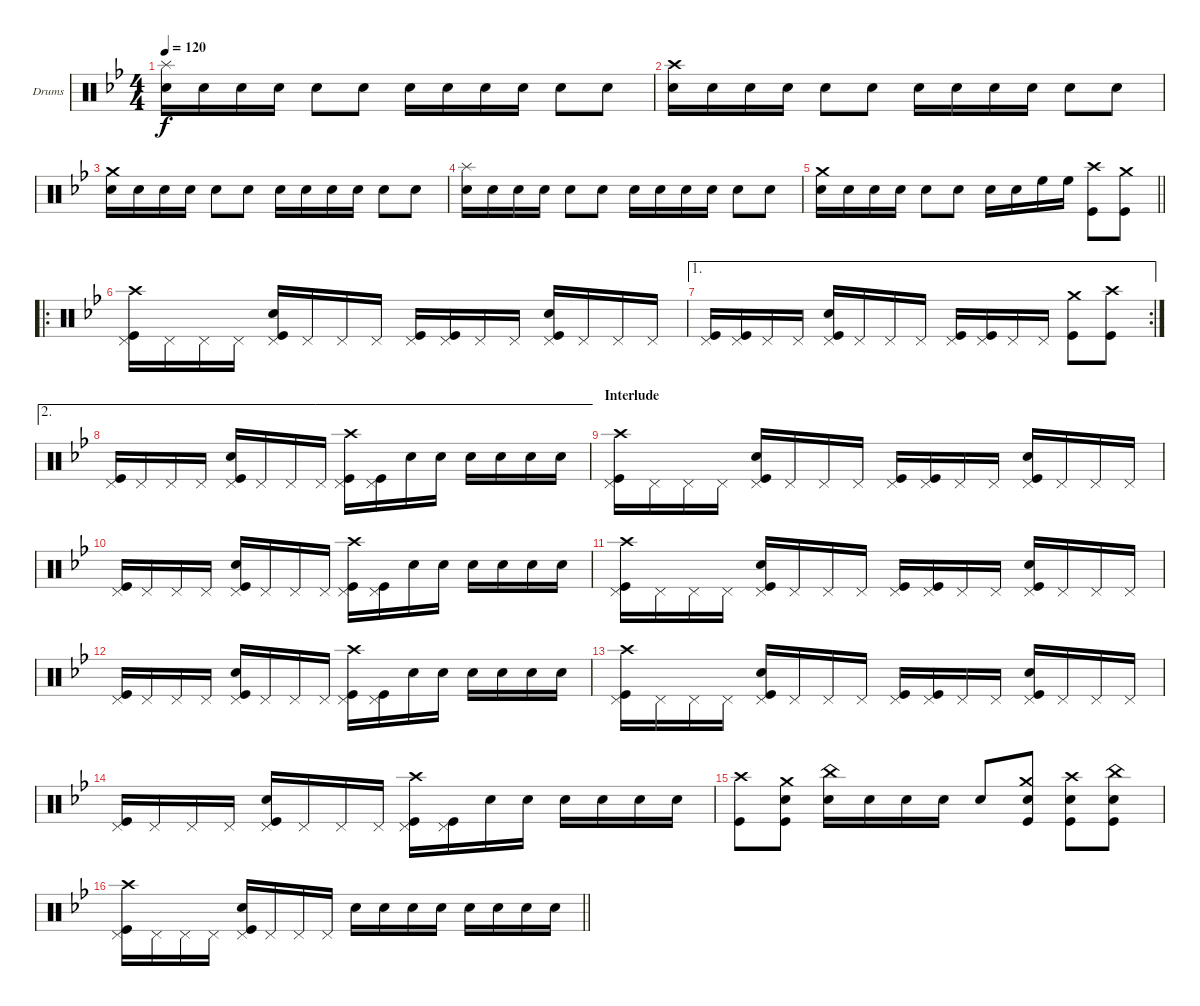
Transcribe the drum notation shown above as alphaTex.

\bracketExtendMode groupsimilarinstruments
\firstSystemTrackNameOrientation horizontal
\otherSystemsTrackNameOrientation horizontal
\track ("Drumkit" "Drums") {instrument percussion}
\staff {score}
\articulation defaults
\ts (4 4)
\tempo 120
\clef neutral
\ks bb
("Splash (hit)" "Snare (hit) 2").16{dy f} "Snare (hit) 2".16 "Snare (hit) 2".16 "Snare (hit) 2".16 "Snare (hit) 2".8 "Snare (hit) 2".8 "Snare (hit) 2".16 "Snare (hit) 2".16 "Snare (hit) 2".16 "Snare (hit) 2".16 "Snare (hit) 2".8 "Snare (hit) 2".8 |
("Crash high (hit)" "Snare (hit) 2").16 "Snare (hit) 2".16 "Snare (hit) 2".16 "Snare (hit) 2".16 "Snare (hit) 2".8 "Snare (hit) 2".8 "Snare (hit) 2".16 "Snare (hit) 2".16 "Snare (hit) 2".16 "Snare (hit) 2".16 "Snare (hit) 2".8 "Snare (hit) 2".8 |
("Crash medium (hit)" "Snare (hit) 2").16 "Snare (hit) 2".16 "Snare (hit) 2".16 "Snare (hit) 2".16 "Snare (hit) 2".8 "Snare (hit) 2".8 "Snare (hit) 2".16 "Snare (hit) 2".16 "Snare (hit) 2".16 "Snare (hit) 2".16 "Snare (hit) 2".8 "Snare (hit) 2".8 |
("Splash (hit)" "Snare (hit) 2").16 "Snare (hit) 2".16 "Snare (hit) 2".16 "Snare (hit) 2".16 "Snare (hit) 2".8 "Snare (hit) 2".8 "Snare (hit) 2".16 "Snare (hit) 2".16 "Snare (hit) 2".16 "Snare (hit) 2".16 "Snare (hit) 2".8 "Snare (hit) 2".8 |
\barLineRight lightlight
("Crash medium (hit)" "Snare (hit) 2").16 "Snare (hit) 2".16 "Snare (hit) 2".16 "Snare (hit) 2".16 "Snare (hit) 2".8 "Snare (hit) 2".8 "Snare (hit) 2".16 "Snare (hit) 2".16 "High Floor Tom (hit)".16 "High Floor Tom (hit)".16 ("Crash high (hit)" "Kick (hit)").8 ("Crash medium (hit)" "Kick (hit)").8 |
\ro
("Crash high (hit)" "Pedal Hi-Hat (hit)" "Kick (hit)").16 "Pedal Hi-Hat (hit)".16 "Pedal Hi-Hat (hit)".16 "Pedal Hi-Hat (hit)".16 ("Snare (hit) 2" "Pedal Hi-Hat (hit)" "Kick (hit)").16 "Pedal Hi-Hat (hit)".16 "Pedal Hi-Hat (hit)".16 "Pedal Hi-Hat (hit)".16 ("Pedal Hi-Hat (hit)" "Kick (hit)").16 ("Pedal Hi-Hat (hit)" "Kick (hit)").16 "Pedal Hi-Hat (hit)".16 "Pedal Hi-Hat (hit)".16 ("Snare (hit) 2" "Pedal Hi-Hat (hit)" "Kick (hit)").16 "Pedal Hi-Hat (hit)".16 "Pedal Hi-Hat (hit)".16 "Pedal Hi-Hat (hit)".16 |
\ae 1
\rc 2
("Pedal Hi-Hat (hit)" "Kick (hit)").16 ("Pedal Hi-Hat (hit)" "Kick (hit)").16 "Pedal Hi-Hat (hit)".16 "Pedal Hi-Hat (hit)".16 ("Snare (hit) 2" "Pedal Hi-Hat (hit)" "Kick (hit)").16 "Pedal Hi-Hat (hit)".16 "Pedal Hi-Hat (hit)".16 "Pedal Hi-Hat (hit)".16 ("Pedal Hi-Hat (hit)" "Kick (hit)").16 ("Pedal Hi-Hat (hit)" "Kick (hit)").16 "Pedal Hi-Hat (hit)".16 "Pedal Hi-Hat (hit)".16 ("Crash medium (hit)" "Kick (hit)").8 ("Crash high (hit)" "Kick (hit)").8 |
\ae 2
("Pedal Hi-Hat (hit)" "Kick (hit)").16 "Pedal Hi-Hat (hit)".16 "Pedal Hi-Hat (hit)".16 "Pedal Hi-Hat (hit)".16 ("Snare (hit) 2" "Pedal Hi-Hat (hit)" "Kick (hit)").16 "Pedal Hi-Hat (hit)".16 "Pedal Hi-Hat (hit)".16 "Pedal Hi-Hat (hit)".16 ("Crash high (hit)" "Pedal Hi-Hat (hit)" "Kick (hit)").16 ("Pedal Hi-Hat (hit)" "Kick (hit)").16 "Snare (hit) 2".16 "Snare (hit) 2".16 "Snare (hit) 2".16 "Snare (hit) 2".16 "Snare (hit) 2".16 "Snare (hit) 2".16 |
\section ("" "Interlude")
("Crash high (hit)" "Pedal Hi-Hat (hit)" "Kick (hit)").16 "Pedal Hi-Hat (hit)".16 "Pedal Hi-Hat (hit)".16 "Pedal Hi-Hat (hit)".16 ("Snare (hit) 2" "Pedal Hi-Hat (hit)" "Kick (hit)").16 "Pedal Hi-Hat (hit)".16 "Pedal Hi-Hat (hit)".16 "Pedal Hi-Hat (hit)".16 ("Pedal Hi-Hat (hit)" "Kick (hit)").16 ("Pedal Hi-Hat (hit)" "Kick (hit)").16 "Pedal Hi-Hat (hit)".16 "Pedal Hi-Hat (hit)".16 ("Snare (hit) 2" "Pedal Hi-Hat (hit)" "Kick (hit)").16 "Pedal Hi-Hat (hit)".16 "Pedal Hi-Hat (hit)".16 "Pedal Hi-Hat (hit)".16 |
("Pedal Hi-Hat (hit)" "Kick (hit)").16 "Pedal Hi-Hat (hit)".16 "Pedal Hi-Hat (hit)".16 "Pedal Hi-Hat (hit)".16 ("Snare (hit) 2" "Pedal Hi-Hat (hit)" "Kick (hit)").16 "Pedal Hi-Hat (hit)".16 "Pedal Hi-Hat (hit)".16 "Pedal Hi-Hat (hit)".16 ("Crash high (hit)" "Pedal Hi-Hat (hit)" "Kick (hit)").16 ("Pedal Hi-Hat (hit)" "Kick (hit)").16 "Snare (hit) 2".16 "Snare (hit) 2".16 "Snare (hit) 2".16 "Snare (hit) 2".16 "Snare (hit) 2".16 "Snare (hit) 2".16 |
("Crash high (hit)" "Pedal Hi-Hat (hit)" "Kick (hit)").16 "Pedal Hi-Hat (hit)".16 "Pedal Hi-Hat (hit)".16 "Pedal Hi-Hat (hit)".16 ("Snare (hit) 2" "Pedal Hi-Hat (hit)" "Kick (hit)").16 "Pedal Hi-Hat (hit)".16 "Pedal Hi-Hat (hit)".16 "Pedal Hi-Hat (hit)".16 ("Pedal Hi-Hat (hit)" "Kick (hit)").16 ("Pedal Hi-Hat (hit)" "Kick (hit)").16 "Pedal Hi-Hat (hit)".16 "Pedal Hi-Hat (hit)".16 ("Snare (hit) 2" "Pedal Hi-Hat (hit)" "Kick (hit)").16 "Pedal Hi-Hat (hit)".16 "Pedal Hi-Hat (hit)".16 "Pedal Hi-Hat (hit)".16 |
("Pedal Hi-Hat (hit)" "Kick (hit)").16 "Pedal Hi-Hat (hit)".16 "Pedal Hi-Hat (hit)".16 "Pedal Hi-Hat (hit)".16 ("Snare (hit) 2" "Pedal Hi-Hat (hit)" "Kick (hit)").16 "Pedal Hi-Hat (hit)".16 "Pedal Hi-Hat (hit)".16 "Pedal Hi-Hat (hit)".16 ("Crash high (hit)" "Pedal Hi-Hat (hit)" "Kick (hit)").16 ("Pedal Hi-Hat (hit)" "Kick (hit)").16 "Snare (hit) 2".16 "Snare (hit) 2".16 "Snare (hit) 2".16 "Snare (hit) 2".16 "Snare (hit) 2".16 "Snare (hit) 2".16 |
("Crash high (hit)" "Pedal Hi-Hat (hit)" "Kick (hit)").16 "Pedal Hi-Hat (hit)".16 "Pedal Hi-Hat (hit)".16 "Pedal Hi-Hat (hit)".16 ("Snare (hit) 2" "Pedal Hi-Hat (hit)" "Kick (hit)").16 "Pedal Hi-Hat (hit)".16 "Pedal Hi-Hat (hit)".16 "Pedal Hi-Hat (hit)".16 ("Pedal Hi-Hat (hit)" "Kick (hit)").16 ("Pedal Hi-Hat (hit)" "Kick (hit)").16 "Pedal Hi-Hat (hit)".16 "Pedal Hi-Hat (hit)".16 ("Snare (hit) 2" "Pedal Hi-Hat (hit)" "Kick (hit)").16 "Pedal Hi-Hat (hit)".16 "Pedal Hi-Hat (hit)".16 "Pedal Hi-Hat (hit)".16 |
("Pedal Hi-Hat (hit)" "Kick (hit)").16 "Pedal Hi-Hat (hit)".16 "Pedal Hi-Hat (hit)".16 "Pedal Hi-Hat (hit)".16 ("Snare (hit) 2" "Pedal Hi-Hat (hit)" "Kick (hit)").16 "Pedal Hi-Hat (hit)".16 "Pedal Hi-Hat (hit)".16 "Pedal Hi-Hat (hit)".16 ("Crash high (hit)" "Pedal Hi-Hat (hit)" "Kick (hit)").16 ("Pedal Hi-Hat (hit)" "Kick (hit)").16 "Snare (hit) 2".16 "Snare (hit) 2".16 "Snare (hit) 2".16 "Snare (hit) 2".16 "Snare (hit) 2".16 "Snare (hit) 2".16 |
("Crash high (hit)" "Kick (hit)").8 ("Crash medium (hit)" "Snare (hit) 2" "Kick (hit)").8 ("China (hit)" "Snare (hit) 2").16 "Snare (hit) 2".16 "Snare (hit) 2".16 "Snare (hit) 2".16 "Snare (hit) 2".8 ("Crash medium (hit)" "Snare (hit) 2" "Kick (hit)").8 ("Crash high (hit)" "Snare (hit) 2" "Kick (hit)").8 ("China (hit)" "Snare (hit) 2" "Kick (hit)").8 |
\barLineRight lightlight
("Crash high (hit)" "Pedal Hi-Hat (hit)" "Kick (hit)").16 "Pedal Hi-Hat (hit)".16 "Pedal Hi-Hat (hit)".16 "Pedal Hi-Hat (hit)".16 ("Snare (hit) 2" "Pedal Hi-Hat (hit)" "Kick (hit)").16 "Pedal Hi-Hat (hit)".16 "Pedal Hi-Hat (hit)".16 "Pedal Hi-Hat (hit)".16 "Snare (hit) 2".16 "Snare (hit) 2".16 "Snare (hit) 2".16 "Snare (hit) 2".16 "Snare (hit) 2".16 "Snare (hit) 2".16 "Snare (hit) 2".16 "Snare (hit) 2".16
